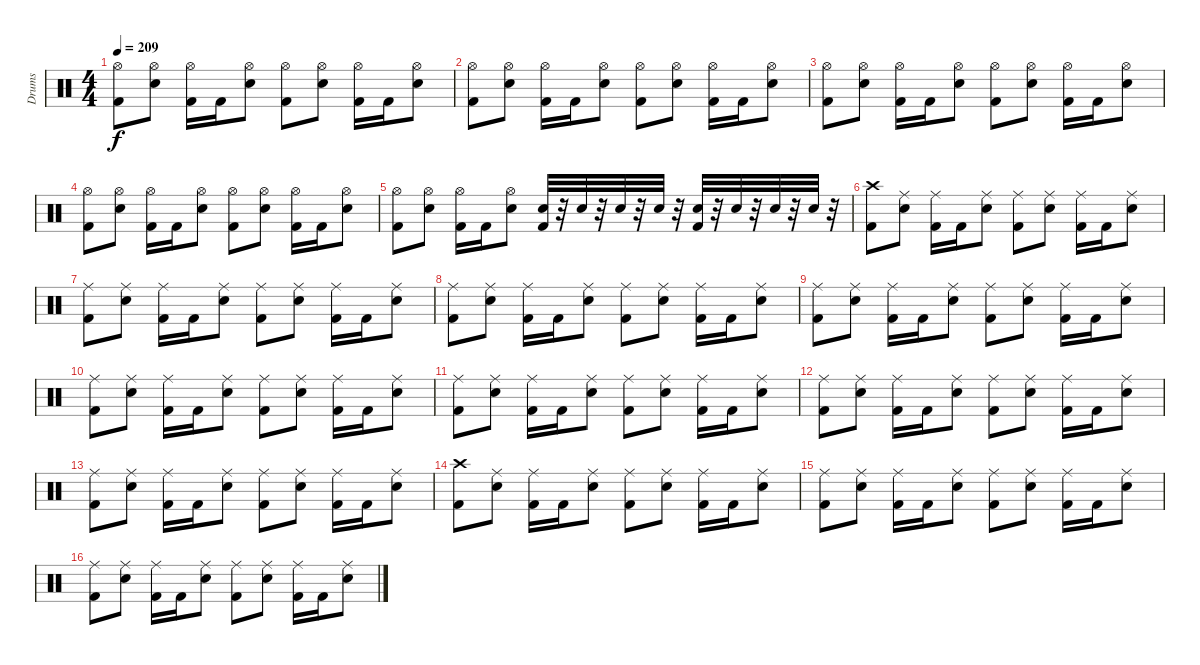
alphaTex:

\track ("Drums" "Drums") {instrument percussion}
\staff {score}
\articulation defaults
\ts (4 4)
\tempo 209
\clef neutral
\ks c
("Kick (hit) 2" "Hi-Hat (open)").8{dy f} ("Hi-Hat (open)" "Electric Snare (hit)").8 ("Kick (hit) 2" "Hi-Hat (open)").16 "Kick (hit) 2".16 ("Hi-Hat (open)" "Electric Snare (hit)").8 ("Kick (hit) 2" "Hi-Hat (open)").8 ("Hi-Hat (open)" "Electric Snare (hit)").8 ("Kick (hit) 2" "Hi-Hat (open)").16 "Kick (hit) 2".16 ("Hi-Hat (open)" "Electric Snare (hit)").8 |
("Kick (hit) 2" "Hi-Hat (open)").8 ("Hi-Hat (open)" "Electric Snare (hit)").8 ("Kick (hit) 2" "Hi-Hat (open)").16 "Kick (hit) 2".16 ("Hi-Hat (open)" "Electric Snare (hit)").8 ("Kick (hit) 2" "Hi-Hat (open)").8 ("Hi-Hat (open)" "Electric Snare (hit)").8 ("Kick (hit) 2" "Hi-Hat (open)").16 "Kick (hit) 2".16 ("Hi-Hat (open)" "Electric Snare (hit)").8 |
("Kick (hit) 2" "Hi-Hat (open)").8 ("Hi-Hat (open)" "Electric Snare (hit)").8 ("Kick (hit) 2" "Hi-Hat (open)").16 "Kick (hit) 2".16 ("Hi-Hat (open)" "Electric Snare (hit)").8 ("Kick (hit) 2" "Hi-Hat (open)").8 ("Hi-Hat (open)" "Electric Snare (hit)").8 ("Kick (hit) 2" "Hi-Hat (open)").16 "Kick (hit) 2".16 ("Hi-Hat (open)" "Electric Snare (hit)").8 |
("Kick (hit) 2" "Hi-Hat (open)").8 ("Hi-Hat (open)" "Electric Snare (hit)").8 ("Kick (hit) 2" "Hi-Hat (open)").16 "Kick (hit) 2".16 ("Hi-Hat (open)" "Electric Snare (hit)").8 ("Kick (hit) 2" "Hi-Hat (open)").8 ("Hi-Hat (open)" "Electric Snare (hit)").8 ("Kick (hit) 2" "Hi-Hat (open)").16 "Kick (hit) 2".16 ("Hi-Hat (open)" "Electric Snare (hit)").8 |
("Kick (hit) 2" "Hi-Hat (open)").8 ("Hi-Hat (open)" "Electric Snare (hit)").8 ("Kick (hit) 2" "Hi-Hat (open)").16 "Kick (hit) 2".16 ("Hi-Hat (open)" "Electric Snare (hit)").8 ("Kick (hit) 2" "Electric Snare (hit)").32 r.32 "Electric Snare (hit)".32 r.32 "Electric Snare (hit)".32 r.32 "Electric Snare (hit)".32 r.32 ("Kick (hit) 2" "Electric Snare (hit)").32 r.32 "Electric Snare (hit)".32 r.32 "Electric Snare (hit)".32 r.32 "Electric Snare (hit)".32 r.32 |
("Crash high (hit)" "Kick (hit) 2").8 ("Electric Snare (hit)" "Ride (middle)").8 ("Kick (hit) 2" "Ride (middle)").16 "Kick (hit) 2".16 ("Electric Snare (hit)" "Ride (middle)").8 ("Kick (hit) 2" "Ride (middle)").8 ("Electric Snare (hit)" "Ride (middle)").8 ("Kick (hit) 2" "Ride (middle)").16 "Kick (hit) 2".16 ("Electric Snare (hit)" "Ride (middle)").8 |
("Kick (hit) 2" "Ride (middle)").8 ("Electric Snare (hit)" "Ride (middle)").8 ("Kick (hit) 2" "Ride (middle)").16 "Kick (hit) 2".16 ("Electric Snare (hit)" "Ride (middle)").8 ("Kick (hit) 2" "Ride (middle)").8 ("Electric Snare (hit)" "Ride (middle)").8 ("Kick (hit) 2" "Ride (middle)").16 "Kick (hit) 2".16 ("Electric Snare (hit)" "Ride (middle)").8 |
("Kick (hit) 2" "Ride (middle)").8 ("Electric Snare (hit)" "Ride (middle)").8 ("Kick (hit) 2" "Ride (middle)").16 "Kick (hit) 2".16 ("Electric Snare (hit)" "Ride (middle)").8 ("Kick (hit) 2" "Ride (middle)").8 ("Electric Snare (hit)" "Ride (middle)").8 ("Kick (hit) 2" "Ride (middle)").16 "Kick (hit) 2".16 ("Electric Snare (hit)" "Ride (middle)").8 |
("Kick (hit) 2" "Ride (middle)").8 ("Electric Snare (hit)" "Ride (middle)").8 ("Kick (hit) 2" "Ride (middle)").16 "Kick (hit) 2".16 ("Electric Snare (hit)" "Ride (middle)").8 ("Kick (hit) 2" "Ride (middle)").8 ("Electric Snare (hit)" "Ride (middle)").8 ("Kick (hit) 2" "Ride (middle)").16 "Kick (hit) 2".16 ("Electric Snare (hit)" "Ride (middle)").8 |
("Kick (hit) 2" "Ride (middle)").8 ("Electric Snare (hit)" "Ride (middle)").8 ("Kick (hit) 2" "Ride (middle)").16 "Kick (hit) 2".16 ("Electric Snare (hit)" "Ride (middle)").8 ("Kick (hit) 2" "Ride (middle)").8 ("Electric Snare (hit)" "Ride (middle)").8 ("Kick (hit) 2" "Ride (middle)").16 "Kick (hit) 2".16 ("Electric Snare (hit)" "Ride (middle)").8 |
("Kick (hit) 2" "Ride (middle)").8 ("Electric Snare (hit)" "Ride (middle)").8 ("Kick (hit) 2" "Ride (middle)").16 "Kick (hit) 2".16 ("Electric Snare (hit)" "Ride (middle)").8 ("Kick (hit) 2" "Ride (middle)").8 ("Electric Snare (hit)" "Ride (middle)").8 ("Kick (hit) 2" "Ride (middle)").16 "Kick (hit) 2".16 ("Electric Snare (hit)" "Ride (middle)").8 |
("Kick (hit) 2" "Ride (middle)").8 ("Electric Snare (hit)" "Ride (middle)").8 ("Kick (hit) 2" "Ride (middle)").16 "Kick (hit) 2".16 ("Electric Snare (hit)" "Ride (middle)").8 ("Kick (hit) 2" "Ride (middle)").8 ("Electric Snare (hit)" "Ride (middle)").8 ("Kick (hit) 2" "Ride (middle)").16 "Kick (hit) 2".16 ("Electric Snare (hit)" "Ride (middle)").8 |
("Kick (hit) 2" "Ride (middle)").8 ("Electric Snare (hit)" "Ride (middle)").8 ("Kick (hit) 2" "Ride (middle)").16 "Kick (hit) 2".16 ("Electric Snare (hit)" "Ride (middle)").8 ("Kick (hit) 2" "Ride (middle)").8 ("Electric Snare (hit)" "Ride (middle)").8 ("Kick (hit) 2" "Ride (middle)").16 "Kick (hit) 2".16 ("Electric Snare (hit)" "Ride (middle)").8 |
("Crash high (hit)" "Kick (hit) 2").8 ("Electric Snare (hit)" "Ride (middle)").8 ("Kick (hit) 2" "Ride (middle)").16 "Kick (hit) 2".16 ("Electric Snare (hit)" "Ride (middle)").8 ("Kick (hit) 2" "Ride (middle)").8 ("Electric Snare (hit)" "Ride (middle)").8 ("Kick (hit) 2" "Ride (middle)").16 "Kick (hit) 2".16 ("Electric Snare (hit)" "Ride (middle)").8 |
("Kick (hit) 2" "Ride (middle)").8 ("Electric Snare (hit)" "Ride (middle)").8 ("Kick (hit) 2" "Ride (middle)").16 "Kick (hit) 2".16 ("Electric Snare (hit)" "Ride (middle)").8 ("Kick (hit) 2" "Ride (middle)").8 ("Electric Snare (hit)" "Ride (middle)").8 ("Kick (hit) 2" "Ride (middle)").16 "Kick (hit) 2".16 ("Electric Snare (hit)" "Ride (middle)").8 |
("Kick (hit) 2" "Ride (middle)").8 ("Electric Snare (hit)" "Ride (middle)").8 ("Kick (hit) 2" "Ride (middle)").16 "Kick (hit) 2".16 ("Electric Snare (hit)" "Ride (middle)").8 ("Kick (hit) 2" "Ride (middle)").8 ("Electric Snare (hit)" "Ride (middle)").8 ("Kick (hit) 2" "Ride (middle)").16 "Kick (hit) 2".16 ("Electric Snare (hit)" "Ride (middle)").8
